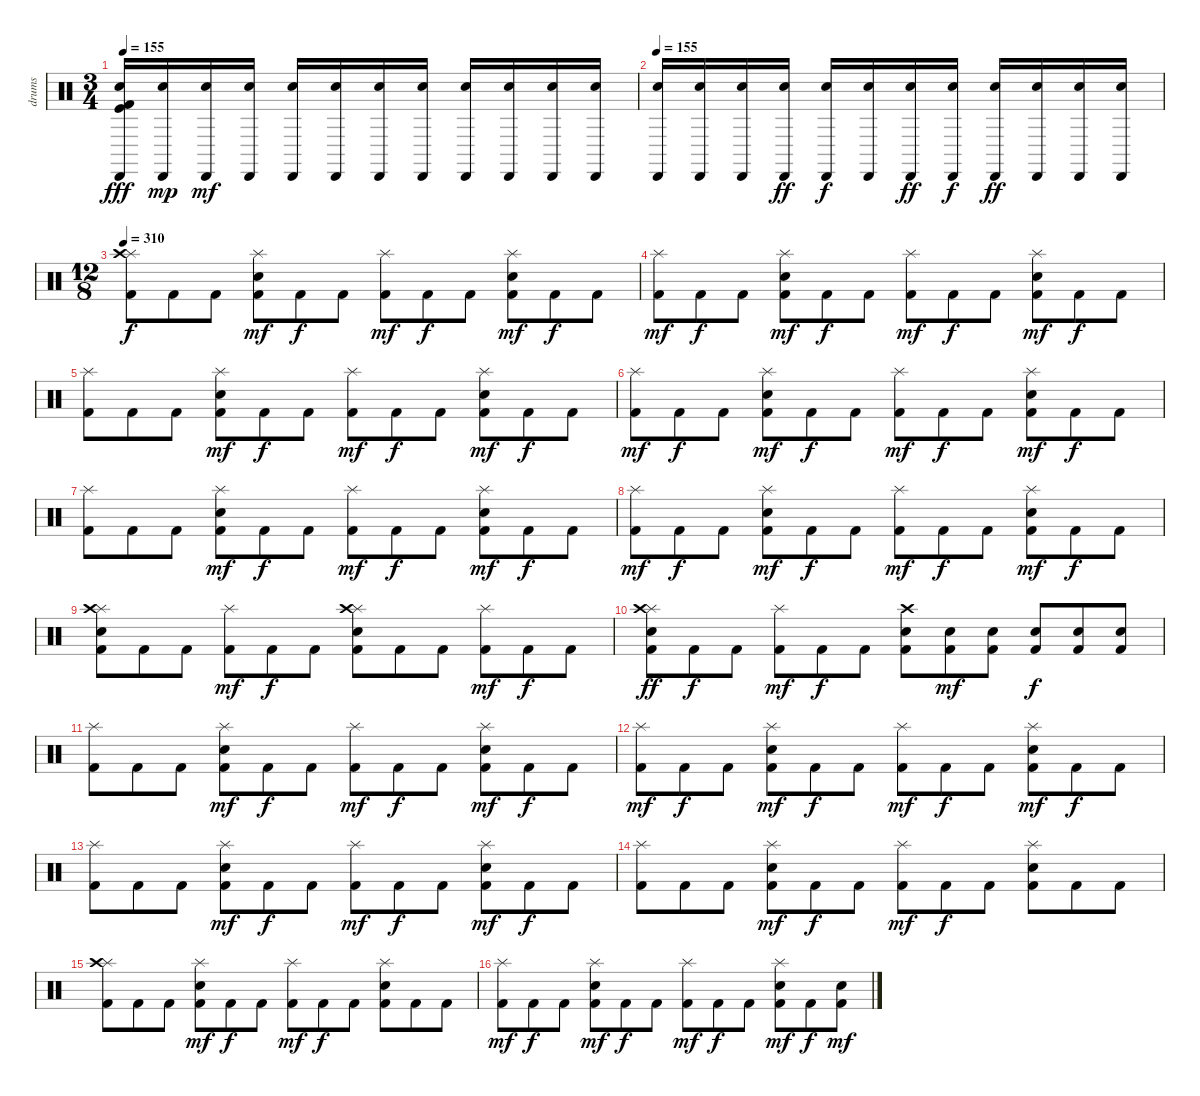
\track ("drums" "drums") {instrument percussion}
\staff {score}
\articulation defaults
\ts (3 4)
\tempo 155
\clef neutral
\ks c
("Cabasa (hit)" "Snare (hit) 2" "Kick (hit) 2" "Kick (hit)").16{dy fff} ("Cabasa (hit)" "Snare (hit) 2").16{dy mp} ("Cabasa (hit)" "Snare (hit) 2").16{dy mf} ("Cabasa (hit)" "Snare (hit) 2").16 ("Cabasa (hit)" "Snare (hit) 2").16 ("Cabasa (hit)" "Snare (hit) 2").16 ("Cabasa (hit)" "Snare (hit) 2").16 ("Cabasa (hit)" "Snare (hit) 2").16 ("Cabasa (hit)" "Snare (hit) 2").16 ("Cabasa (hit)" "Snare (hit) 2").16 ("Cabasa (hit)" "Snare (hit) 2").16 ("Cabasa (hit)" "Snare (hit) 2").16 |
\tempo 155
("Cabasa (hit)" "Snare (hit) 2").16 ("Cabasa (hit)" "Snare (hit) 2").16 ("Cabasa (hit)" "Snare (hit) 2").16 ("Cabasa (hit)" "Snare (hit) 2").16{dy ff} ("Cabasa (hit)" "Snare (hit) 2").16{dy f} ("Cabasa (hit)" "Snare (hit) 2").16 ("Cabasa (hit)" "Snare (hit) 2").16{dy ff} ("Cabasa (hit)" "Snare (hit) 2").16{dy f} ("Cabasa (hit)" "Snare (hit) 2").16{dy ff} ("Cabasa (hit)" "Snare (hit) 2").16 ("Cabasa (hit)" "Snare (hit) 2").16 ("Cabasa (hit)" "Snare (hit) 2").16 |
\ts (12 8)
\tempo 310
("Splash (hit)" "Crash high (hit)" "Kick (hit) 2").8{dy f} "Kick (hit) 2".8 "Kick (hit) 2".8 ("Splash (hit)" "Snare (hit) 2" "Kick (hit) 2").8{dy mf} "Kick (hit) 2".8{dy f} "Kick (hit) 2".8 ("Splash (hit)" "Kick (hit) 2").8{dy mf} "Kick (hit) 2".8{dy f} "Kick (hit) 2".8 ("Splash (hit)" "Snare (hit) 2" "Kick (hit) 2").8{dy mf} "Kick (hit) 2".8{dy f} "Kick (hit) 2".8 |
("Splash (hit)" "Kick (hit) 2").8{dy mf} "Kick (hit) 2".8{dy f} "Kick (hit) 2".8 ("Splash (hit)" "Snare (hit) 2" "Kick (hit) 2").8{dy mf} "Kick (hit) 2".8{dy f} "Kick (hit) 2".8 ("Splash (hit)" "Kick (hit) 2").8{dy mf} "Kick (hit) 2".8{dy f} "Kick (hit) 2".8 ("Splash (hit)" "Snare (hit) 2" "Kick (hit) 2").8{dy mf} "Kick (hit) 2".8{dy f} "Kick (hit) 2".8 |
("Splash (hit)" "Kick (hit) 2").8 "Kick (hit) 2".8 "Kick (hit) 2".8 ("Splash (hit)" "Snare (hit) 2" "Kick (hit) 2").8{dy mf} "Kick (hit) 2".8{dy f} "Kick (hit) 2".8 ("Splash (hit)" "Kick (hit) 2").8{dy mf} "Kick (hit) 2".8{dy f} "Kick (hit) 2".8 ("Splash (hit)" "Snare (hit) 2" "Kick (hit) 2").8{dy mf} "Kick (hit) 2".8{dy f} "Kick (hit) 2".8 |
("Splash (hit)" "Kick (hit) 2").8{dy mf} "Kick (hit) 2".8{dy f} "Kick (hit) 2".8 ("Splash (hit)" "Snare (hit) 2" "Kick (hit) 2").8{dy mf} "Kick (hit) 2".8{dy f} "Kick (hit) 2".8 ("Splash (hit)" "Kick (hit) 2").8{dy mf} "Kick (hit) 2".8{dy f} "Kick (hit) 2".8 ("Splash (hit)" "Snare (hit) 2" "Kick (hit) 2").8{dy mf} "Kick (hit) 2".8{dy f} "Kick (hit) 2".8 |
("Splash (hit)" "Kick (hit) 2").8 "Kick (hit) 2".8 "Kick (hit) 2".8 ("Splash (hit)" "Snare (hit) 2" "Kick (hit) 2").8{dy mf} "Kick (hit) 2".8{dy f} "Kick (hit) 2".8 ("Splash (hit)" "Kick (hit) 2").8{dy mf} "Kick (hit) 2".8{dy f} "Kick (hit) 2".8 ("Splash (hit)" "Snare (hit) 2" "Kick (hit) 2").8{dy mf} "Kick (hit) 2".8{dy f} "Kick (hit) 2".8 |
("Splash (hit)" "Kick (hit) 2").8{dy mf} "Kick (hit) 2".8{dy f} "Kick (hit) 2".8 ("Splash (hit)" "Snare (hit) 2" "Kick (hit) 2").8{dy mf} "Kick (hit) 2".8{dy f} "Kick (hit) 2".8 ("Splash (hit)" "Kick (hit) 2").8{dy mf} "Kick (hit) 2".8{dy f} "Kick (hit) 2".8 ("Splash (hit)" "Snare (hit) 2" "Kick (hit) 2").8{dy mf} "Kick (hit) 2".8{dy f} "Kick (hit) 2".8 |
("Splash (hit)" "Snare (hit) 2" "Crash high (hit)" "Kick (hit) 2").8 "Kick (hit) 2".8 "Kick (hit) 2".8 ("Splash (hit)" "Kick (hit) 2").8{dy mf} "Kick (hit) 2".8{dy f} "Kick (hit) 2".8 ("Splash (hit)" "Snare (hit) 2" "Crash high (hit)" "Kick (hit) 2").8 "Kick (hit) 2".8 "Kick (hit) 2".8 ("Splash (hit)" "Kick (hit) 2").8{dy mf} "Kick (hit) 2".8{dy f} "Kick (hit) 2".8 |
("Splash (hit)" "Snare (hit) 2" "Crash high (hit)" "Kick (hit) 2").8{dy ff} "Kick (hit) 2".8{dy f} "Kick (hit) 2".8 ("Splash (hit)" "Kick (hit) 2").8{dy mf} "Kick (hit) 2".8{dy f} "Kick (hit) 2".8 ("Snare (hit) 2" "Crash high (hit)" "Kick (hit) 2").8 ("Snare (hit) 2" "Kick (hit) 2").8{dy mf} ("Snare (hit) 2" "Kick (hit) 2").8 ("Snare (hit) 2" "Kick (hit) 2").8{dy f} ("Snare (hit) 2" "Kick (hit) 2").8 ("Snare (hit) 2" "Kick (hit) 2").8 |
("Splash (hit)" "Kick (hit) 2").8 "Kick (hit) 2".8 "Kick (hit) 2".8 ("Splash (hit)" "Snare (hit) 2" "Kick (hit) 2").8{dy mf} "Kick (hit) 2".8{dy f} "Kick (hit) 2".8 ("Splash (hit)" "Kick (hit) 2").8{dy mf} "Kick (hit) 2".8{dy f} "Kick (hit) 2".8 ("Splash (hit)" "Snare (hit) 2" "Kick (hit) 2").8{dy mf} "Kick (hit) 2".8{dy f} "Kick (hit) 2".8 |
("Splash (hit)" "Kick (hit) 2").8{dy mf} "Kick (hit) 2".8{dy f} "Kick (hit) 2".8 ("Splash (hit)" "Snare (hit) 2" "Kick (hit) 2").8{dy mf} "Kick (hit) 2".8{dy f} "Kick (hit) 2".8 ("Splash (hit)" "Kick (hit) 2").8{dy mf} "Kick (hit) 2".8{dy f} "Kick (hit) 2".8 ("Splash (hit)" "Snare (hit) 2" "Kick (hit) 2").8{dy mf} "Kick (hit) 2".8{dy f} "Kick (hit) 2".8 |
("Splash (hit)" "Kick (hit) 2").8 "Kick (hit) 2".8 "Kick (hit) 2".8 ("Splash (hit)" "Snare (hit) 2" "Kick (hit) 2").8{dy mf} "Kick (hit) 2".8{dy f} "Kick (hit) 2".8 ("Splash (hit)" "Kick (hit) 2").8{dy mf} "Kick (hit) 2".8{dy f} "Kick (hit) 2".8 ("Splash (hit)" "Snare (hit) 2" "Kick (hit) 2").8{dy mf} "Kick (hit) 2".8{dy f} "Kick (hit) 2".8 |
("Splash (hit)" "Kick (hit) 2").8 "Kick (hit) 2".8 "Kick (hit) 2".8 ("Splash (hit)" "Snare (hit) 2" "Kick (hit) 2").8{dy mf} "Kick (hit) 2".8{dy f} "Kick (hit) 2".8 ("Splash (hit)" "Kick (hit) 2").8{dy mf} "Kick (hit) 2".8{dy f} "Kick (hit) 2".8 ("Splash (hit)" "Snare (hit) 2" "Kick (hit) 2").8 "Kick (hit) 2".8 "Kick (hit) 2".8 |
("Splash (hit)" "Crash high (hit)" "Kick (hit) 2").8 "Kick (hit) 2".8 "Kick (hit) 2".8 ("Splash (hit)" "Snare (hit) 2" "Kick (hit) 2").8{dy mf} "Kick (hit) 2".8{dy f} "Kick (hit) 2".8 ("Splash (hit)" "Kick (hit) 2").8{dy mf} "Kick (hit) 2".8{dy f} "Kick (hit) 2".8 ("Splash (hit)" "Snare (hit) 2" "Kick (hit) 2").8 "Kick (hit) 2".8 "Kick (hit) 2".8 |
("Splash (hit)" "Kick (hit) 2").8{dy mf} "Kick (hit) 2".8{dy f} "Kick (hit) 2".8 ("Splash (hit)" "Snare (hit) 2" "Kick (hit) 2").8{dy mf} "Kick (hit) 2".8{dy f} "Kick (hit) 2".8 ("Splash (hit)" "Kick (hit) 2").8{dy mf} "Kick (hit) 2".8{dy f} "Kick (hit) 2".8 ("Splash (hit)" "Snare (hit) 2" "Kick (hit) 2").8{dy mf} "Kick (hit) 2".8{dy f} ("Snare (hit) 2" "Kick (hit) 2").8{dy mf}
